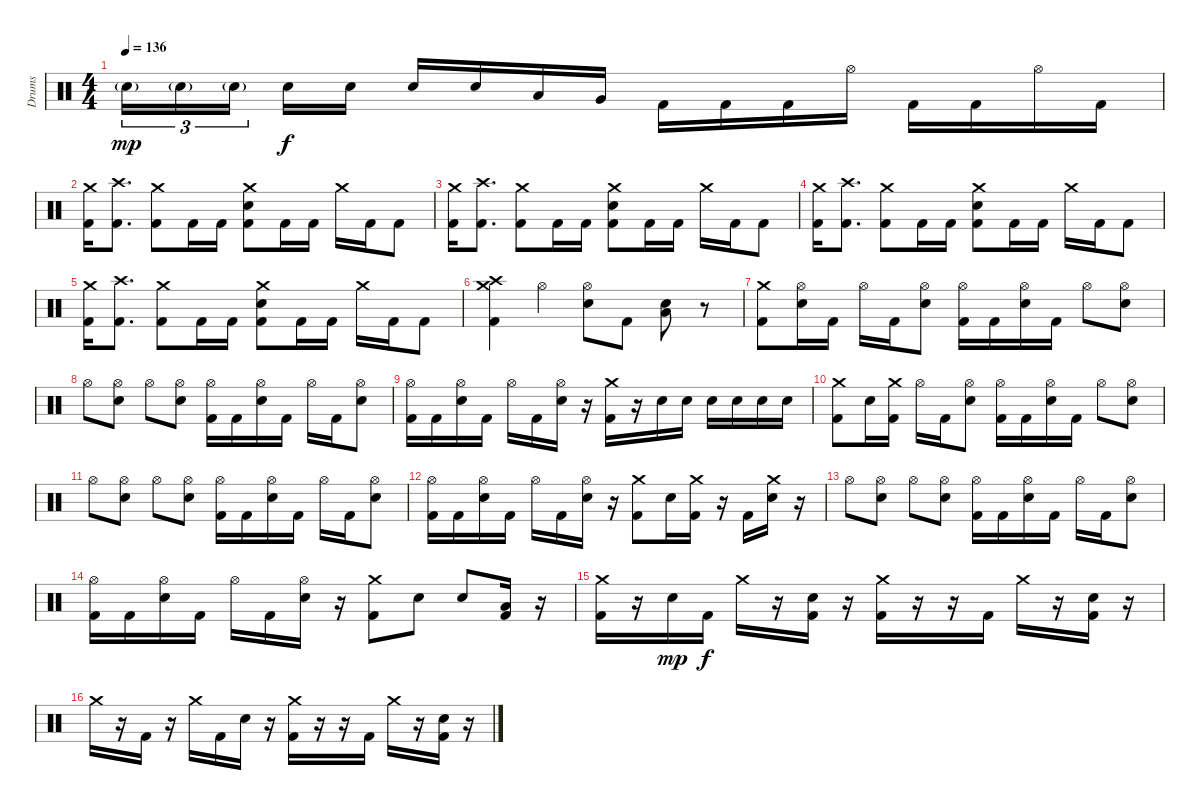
\track ("Drums" "Drums") {instrument percussion}
\staff {score}
\articulation defaults
\ts (4 4)
\tempo 136
\clef neutral
\ks c "Snare (hit) 2"{g}.16{tu (3 2) dy mp} "Snare (hit) 2"{g}.16{tu (3 2)} "Snare (hit) 2"{g}.16{tu (3 2)} "Electric Snare (hit)".16{dy f} "Electric Snare (hit)".16 "Electric Snare (hit)".16 "Electric Snare (hit)".16 "Low Tom (hit)".16 "Very Low Tom (hit)".16 "Kick (hit) 2".16 "Kick (hit) 2".16 "Kick (hit) 2".16 "Hi-Hat (open)".16 "Kick (hit) 2".16 "Kick (hit) 2".16 "Hi-Hat (open)".16 "Kick (hit) 2".16
|
("Crash medium (hit)" "Kick (hit) 2").16 ("Crash high (hit)" "Kick (hit) 2").8{d} ("Crash medium (hit)" "Kick (hit) 2").8 "Kick (hit) 2".16 "Kick (hit) 2".16 ("Crash medium (hit)" "Electric Snare (hit)" "Kick (hit) 2").8 "Kick (hit) 2".16 "Kick (hit) 2".16 "Crash medium (hit)".16 "Kick (hit) 2".16 "Kick (hit) 2".8 |
("Crash medium (hit)" "Kick (hit) 2").16 ("Crash high (hit)" "Kick (hit) 2").8{d} ("Crash medium (hit)" "Kick (hit) 2").8 "Kick (hit) 2".16 "Kick (hit) 2".16 ("Crash medium (hit)" "Electric Snare (hit)" "Kick (hit) 2").8 "Kick (hit) 2".16 "Kick (hit) 2".16 "Crash medium (hit)".16 "Kick (hit) 2".16 "Kick (hit) 2".8 |
("Crash medium (hit)" "Kick (hit) 2").16 ("Crash high (hit)" "Kick (hit) 2").8{d} ("Crash medium (hit)" "Kick (hit) 2").8 "Kick (hit) 2".16 "Kick (hit) 2".16 ("Crash medium (hit)" "Electric Snare (hit)" "Kick (hit) 2").8 "Kick (hit) 2".16 "Kick (hit) 2".16 "Crash medium (hit)".16 "Kick (hit) 2".16 "Kick (hit) 2".8 |
("Crash medium (hit)" "Kick (hit) 2").16 ("Crash high (hit)" "Kick (hit) 2").8{d} ("Crash medium (hit)" "Kick (hit) 2").8 "Kick (hit) 2".16 "Kick (hit) 2".16 ("Crash medium (hit)" "Electric Snare (hit)" "Kick (hit) 2").8 "Kick (hit) 2".16 "Kick (hit) 2".16 "Crash medium (hit)".16 "Kick (hit) 2".16 "Kick (hit) 2".8 |
("Crash medium (hit)" "Crash high (hit)" "Kick (hit) 2").4 "Hi-Hat (open)".4 ("Hi-Hat (open)" "Electric Snare (hit)").8 "Kick (hit) 2".8 ("Low Floor Tom (hit)" "Electric Snare (hit)").8 r.8 |
("Crash medium (hit)" "Kick (hit) 2").8 ("Hi-Hat (open)" "Electric Snare (hit)").16 "Kick (hit) 2".16 "Hi-Hat (open)".16 "Kick (hit) 2".16 ("Hi-Hat (open)" "Electric Snare (hit)").8 ("Hi-Hat (open)" "Kick (hit) 2").16 "Kick (hit) 2".16 ("Hi-Hat (open)" "Electric Snare (hit)").16 "Kick (hit) 2".16 "Hi-Hat (open)".8 ("Hi-Hat (open)" "Electric Snare (hit)").8 |
"Hi-Hat (open)".8 ("Hi-Hat (open)" "Electric Snare (hit)").8 "Hi-Hat (open)".8 ("Hi-Hat (open)" "Electric Snare (hit)").8 ("Hi-Hat (open)" "Kick (hit) 2").16 "Kick (hit) 2".16 ("Hi-Hat (open)" "Electric Snare (hit)").16 "Kick (hit) 2".16 "Hi-Hat (open)".16 "Kick (hit) 2".16 ("Hi-Hat (open)" "Electric Snare (hit)").8 |
("Hi-Hat (open)" "Kick (hit) 2").16 "Kick (hit) 2".16 ("Hi-Hat (open)" "Electric Snare (hit)").16 "Kick (hit) 2".16 "Hi-Hat (open)".16 "Kick (hit) 2".16 ("Hi-Hat (open)" "Electric Snare (hit)").16 r.16 ("Crash medium (hit)" "Kick (hit) 2").16 r.16 "Electric Snare (hit)".16 "Electric Snare (hit)".16 "Electric Snare (hit)".16 "Electric Snare (hit)".16 "Electric Snare (hit)".16 "Electric Snare (hit)".16 |
("Crash medium (hit)" "Kick (hit) 2").8 "Electric Snare (hit)".16 ("Crash medium (hit)" "Kick (hit) 2").16 "Hi-Hat (open)".16 "Kick (hit) 2".16 ("Hi-Hat (open)" "Electric Snare (hit)").8 ("Hi-Hat (open)" "Kick (hit) 2").16 "Kick (hit) 2".16 ("Hi-Hat (open)" "Electric Snare (hit)").16 "Kick (hit) 2".16 "Hi-Hat (open)".8 ("Hi-Hat (open)" "Electric Snare (hit)").8 |
"Hi-Hat (open)".8 ("Hi-Hat (open)" "Electric Snare (hit)").8 "Hi-Hat (open)".8 ("Hi-Hat (open)" "Electric Snare (hit)").8 ("Hi-Hat (open)" "Kick (hit) 2").16 "Kick (hit) 2".16 ("Hi-Hat (open)" "Electric Snare (hit)").16 "Kick (hit) 2".16 "Hi-Hat (open)".16 "Kick (hit) 2".16 ("Hi-Hat (open)" "Electric Snare (hit)").8 |
("Hi-Hat (open)" "Kick (hit) 2").16 "Kick (hit) 2".16 ("Hi-Hat (open)" "Electric Snare (hit)").16 "Kick (hit) 2".16 "Hi-Hat (open)".16 "Kick (hit) 2".16 ("Hi-Hat (open)" "Electric Snare (hit)").16 r.16 ("Crash medium (hit)" "Kick (hit) 2").8 "Electric Snare (hit)".16 ("Crash medium (hit)" "Kick (hit) 2").16 r.16 "Kick (hit) 2".16 ("Crash medium (hit)" "Electric Snare (hit)").16 r.16 |
"Hi-Hat (open)".8 ("Hi-Hat (open)" "Electric Snare (hit)").8 "Hi-Hat (open)".8 ("Hi-Hat (open)" "Electric Snare (hit)").8 ("Hi-Hat (open)" "Kick (hit) 2").16 "Kick (hit) 2".16 ("Hi-Hat (open)" "Electric Snare (hit)").16 "Kick (hit) 2".16 "Hi-Hat (open)".16 "Kick (hit) 2".16 ("Hi-Hat (open)" "Electric Snare (hit)").8 |
("Hi-Hat (open)" "Kick (hit) 2").16 "Kick (hit) 2".16 ("Hi-Hat (open)" "Electric Snare (hit)").16 "Kick (hit) 2".16 "Hi-Hat (open)".16 "Kick (hit) 2".16 ("Hi-Hat (open)" "Electric Snare (hit)").16 r.16 ("Crash medium (hit)" "Kick (hit) 2").8 "Electric Snare (hit)".8 "Electric Snare (hit)".8 ("Low Floor Tom (hit)" "Kick (hit) 2").16 r.16 |
("Crash medium (hit)" "Kick (hit) 2").16 r.16 "Snare (hit) 2".16{dy mp} "Kick (hit) 2".16{dy f} "Crash medium (hit)".16 r.16 ("Electric Snare (hit)" "Kick (hit) 2").16 r.16 ("Crash medium (hit)" "Kick (hit) 2").16 r.16 r.16 "Kick (hit) 2".16 "Crash medium (hit)".16 r.16 ("Electric Snare (hit)" "Kick (hit) 2").16 r.16 |
"Crash medium (hit)".16 r.16 "Kick (hit) 2".16 r.16 "Crash medium (hit)".16 "Kick (hit) 2".16 "Electric Snare (hit)".16 r.16 ("Crash medium (hit)" "Kick (hit) 2").16 r.16 r.16 "Kick (hit) 2".16 "Crash medium (hit)".16 r.16 ("Electric Snare (hit)" "Kick (hit) 2").16 r.16
